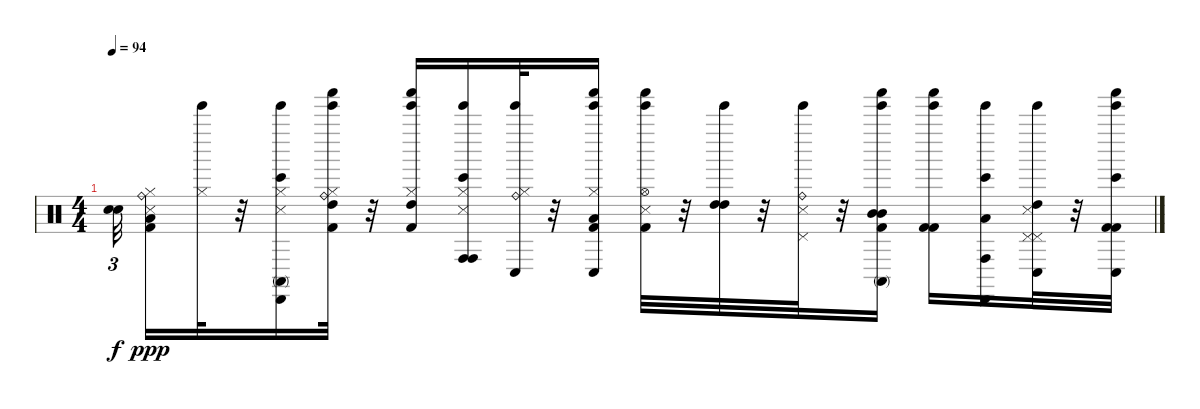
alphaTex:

\track "" {instrument percussion}
\staff {score}
\articulation defaults
\ts (4 4)
\tempo 94
\clef neutral
\ks c
("Snare (hit)"{t} "Snare (hit)"{t}).32{tu (3 2) dy f beam splitsecondary} ("Kick (hit) 2" "Snare (side stick) 3" "Hi-Hat (closed)" "Low Floor Tom (hit)" "Ride (bell)").16{dy ppp} ("Tinkle Bell (hit)" "Hi-Hat (closed)").32 r.32 ("Tinkle Bell (hit)" "Conga high (mute)" "Snare (side stick) 3" "Hi-Hat (closed)" "Bongo High (hit)" "Cabasa (hit)").16 ("Kick (hit) 2" "Hi-Hat (closed)" "Tinkle Bell (hit)" "Shaker (hit)" "High Tom (hit)" "Ride (bell)").32 r.32 ("Kick (hit) 2" "Hi-Hat (closed)" "Tinkle Bell (hit)" "Shaker (hit)" "High Tom (hit)").16 ("Tinkle Bell (hit)" "Conga high (hit)" "Snare (side stick) 3" "Hi-Hat (closed)" "Bongo High (hit)" "Conga high (hit)").16 ("Tinkle Bell (hit)" "Conga low (hit)" "Hi-Hat (closed)" "Ride (bell)").32 r.32 ("Kick (hit) 2" "Conga low (hit)" "Hi-Hat (closed)" "Tinkle Bell (hit)" "Shaker (hit)" "Low Floor Tom (hit)").16 ("Kick (hit) 2" "Snare (side stick) 3" "Tinkle Bell (hit)" "Shaker (hit)" "Hi-Hat (open)").32 r.32 ("Tinkle Bell (hit)" "High Tom (hit)" "High Tom (hit)").32 r.32 ("Tinkle Bell (hit)" "Pedal Hi-Hat (hit)" "Snare (side stick) 3" "Ride (bell)").32 r.32 ("Conga high (mute)" "Kick (hit) 2" "Tinkle Bell (hit)" "Shaker (hit)" "Mid Tom (hit)" "Mid Tom (hit)").16 ("Kick (hit) 2" "Tinkle Bell (hit)" "Shaker (hit)" "Kick (hit) 2").16 ("Tinkle Bell (hit)" "Low Tom (hit)" "Cabasa (hit)" "Bongo High (hit)" "Conga high (hit)").16 ("Tinkle Bell (hit)" "Conga low (hit)" "Pedal Hi-Hat (hit)" "Snare (side stick) 3" "Pedal Hi-Hat (hit)" "High Tom (hit)").32 r.32 ("Kick (hit) 2" "Tinkle Bell (hit)" "Shaker (hit)" "Conga low (hit)" "Kick (hit) 2" "Bongo High (hit)").32{volume 7}
